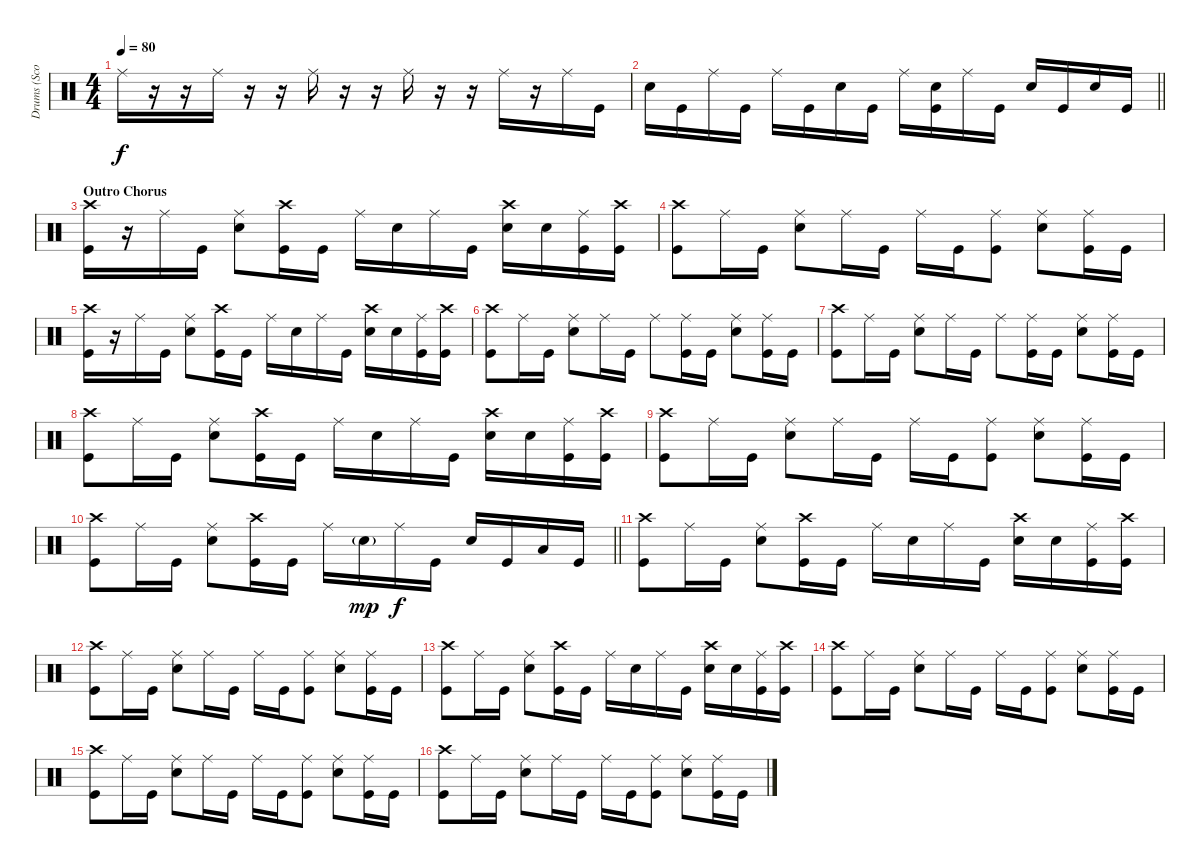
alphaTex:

\track ("Drums (Scott Phillips)" "Drums (Sco") {instrument percussion}
\staff {score}
\articulation defaults
\ts (4 4)
\tempo 80
\clef neutral
\ks c "Ride (middle)".16{dy f}
r.16 r.16 "Ride (middle)".16 r.16 r.16 "Ride (middle)".16 r.16 r.16 "Ride (middle)".16 r.16 r.16 "Ride (middle)".16 r.16 "Ride (middle)".16 "Kick (hit)".16 |
\barLineRight lightlight "Snare (hit) 2".16 "Kick (hit)".16 "Ride (middle)".16 "Kick (hit)".16 "Ride (middle)".16 "Kick (hit)".16 "Snare (hit) 2".16 "Kick (hit)".16 "Ride (middle)".16
("Snare (hit) 2" "Kick (hit)").16 "Ride (middle)".16 "Kick (hit)".16 "Snare (hit) 2".16 "Kick (hit)".16 "Snare (hit) 2".16 "Kick (hit)".16 |
\section ("" "Outro Chorus")
("Crash high (hit)" "Kick (hit)").16 r.16 "Ride (middle)".16 "Kick (hit)".16 ("Ride (middle)" "Snare (hit) 2").8 ("Crash high (hit)" "Kick (hit)").16 "Kick (hit)".16 "Ride (middle)".16 "Snare (hit) 2".16 "Ride (middle)".16 "Kick (hit)".16 ("Crash high (hit)" "Snare (hit) 2").16 "Snare (hit) 2".16 ("Ride (middle)" "Kick (hit)").16 ("Crash high (hit)" "Kick (hit)").16 |
("Crash high (hit)" "Kick (hit)").8 "Ride (middle)".16 "Kick (hit)".16 ("Ride (middle)" "Snare (hit) 2").8 "Ride (middle)".16 "Kick (hit)".16 "Ride (middle)".16 "Kick (hit)".16 ("Ride (middle)" "Kick (hit)").8 ("Ride (middle)" "Snare (hit) 2").8 ("Ride (middle)" "Kick (hit)").16 "Kick (hit)".16 |
("Crash high (hit)" "Kick (hit)").16 r.16 "Ride (middle)".16 "Kick (hit)".16 ("Ride (middle)" "Snare (hit) 2").8 ("Crash high (hit)" "Kick (hit)").16 "Kick (hit)".16 "Ride (middle)".16 "Snare (hit) 2".16 "Ride (middle)".16 "Kick (hit)".16 ("Crash high (hit)" "Snare (hit) 2").16 "Snare (hit) 2".16 ("Ride (middle)" "Kick (hit)").16 ("Crash high (hit)" "Kick (hit)").16 |
("Crash high (hit)" "Kick (hit)").8 "Ride (middle)".16 "Kick (hit)".16 ("Ride (middle)" "Snare (hit) 2").8 "Ride (middle)".16 "Kick (hit)".16 "Ride (middle)".8 ("Ride (middle)" "Kick (hit)").16 "Kick (hit)".16 ("Ride (middle)" "Snare (hit) 2").8 ("Ride (middle)" "Kick (hit)").16 "Kick (hit)".16 |
("Crash high (hit)" "Kick (hit)").8 "Ride (middle)".16 "Kick (hit)".16 ("Ride (middle)" "Snare (hit) 2").8 "Ride (middle)".16 "Kick (hit)".16 "Ride (middle)".8 ("Ride (middle)" "Kick (hit)").16 "Kick (hit)".16 ("Ride (middle)" "Snare (hit) 2").8 ("Ride (middle)" "Kick (hit)").16 "Kick (hit)".16 |
("Crash high (hit)" "Kick (hit)").8 "Ride (middle)".16 "Kick (hit)".16 ("Ride (middle)" "Snare (hit) 2").8 ("Crash high (hit)" "Kick (hit)").16 "Kick (hit)".16 "Ride (middle)".16 "Snare (hit) 2".16 "Ride (middle)".16 "Kick (hit)".16 ("Crash high (hit)" "Snare (hit) 2").16 "Snare (hit) 2".16 ("Ride (middle)" "Kick (hit)").16 ("Crash high (hit)" "Kick (hit)").16 |
("Crash high (hit)" "Kick (hit)").8 "Ride (middle)".16 "Kick (hit)".16 ("Ride (middle)" "Snare (hit) 2").8 "Ride (middle)".16 "Kick (hit)".16 "Ride (middle)".16 "Kick (hit)".16 ("Ride (middle)" "Kick (hit)").8 ("Ride (middle)" "Snare (hit) 2").8 ("Ride (middle)" "Kick (hit)").16 "Kick (hit)".16 |
\barLineRight lightlight
("Crash high (hit)" "Kick (hit)").8 "Ride (middle)".16 "Kick (hit)".16 ("Ride (middle)" "Snare (hit) 2").8 ("Crash high (hit)" "Kick (hit)").16 "Kick (hit)".16 "Ride (middle)".16 "Snare (hit) 2"{g}.16{dy mp} "Ride (middle)".16{dy f} "Kick (hit)".16 "Snare (hit) 2".16 "Kick (hit)".16 "Low Tom (hit)".16 "Kick (hit)".16 |
("Crash high (hit)" "Kick (hit)").8 "Ride (middle)".16 "Kick (hit)".16 ("Ride (middle)" "Snare (hit) 2").8 ("Crash high (hit)" "Kick (hit)").16 "Kick (hit)".16 "Ride (middle)".16 "Snare (hit) 2".16 "Ride (middle)".16 "Kick (hit)".16 ("Crash high (hit)" "Snare (hit) 2").16 "Snare (hit) 2".16 ("Ride (middle)" "Kick (hit)").16 ("Crash high (hit)" "Kick (hit)").16 |
("Crash high (hit)" "Kick (hit)").8 "Ride (middle)".16 "Kick (hit)".16 ("Ride (middle)" "Snare (hit) 2").8 "Ride (middle)".16 "Kick (hit)".16 "Ride (middle)".16 "Kick (hit)".16 ("Ride (middle)" "Kick (hit)").8 ("Ride (middle)" "Snare (hit) 2").8 ("Ride (middle)" "Kick (hit)").16 "Kick (hit)".16 |
("Crash high (hit)" "Kick (hit)").8 "Ride (middle)".16 "Kick (hit)".16 ("Ride (middle)" "Snare (hit) 2").8 ("Crash high (hit)" "Kick (hit)").16 "Kick (hit)".16 "Ride (middle)".16 "Snare (hit) 2".16 "Ride (middle)".16 "Kick (hit)".16 ("Crash high (hit)" "Snare (hit) 2").16 "Snare (hit) 2".16 ("Ride (middle)" "Kick (hit)").16 ("Crash high (hit)" "Kick (hit)").16 |
("Crash high (hit)" "Kick (hit)").8 "Ride (middle)".16 "Kick (hit)".16 ("Ride (middle)" "Snare (hit) 2").8 "Ride (middle)".16 "Kick (hit)".16 "Ride (middle)".16 "Kick (hit)".16 ("Ride (middle)" "Kick (hit)").8 ("Ride (middle)" "Snare (hit) 2").8 ("Ride (middle)" "Kick (hit)").16 "Kick (hit)".16 |
("Crash high (hit)" "Kick (hit)").8 "Ride (middle)".16 "Kick (hit)".16 ("Ride (middle)" "Snare (hit) 2").8 "Ride (middle)".16 "Kick (hit)".16 "Ride (middle)".16 "Kick (hit)".16 ("Ride (middle)" "Kick (hit)").8 ("Ride (middle)" "Snare (hit) 2").8 ("Ride (middle)" "Kick (hit)").16 "Kick (hit)".16 |
("Crash high (hit)" "Kick (hit)").8 "Ride (middle)".16 "Kick (hit)".16 ("Ride (middle)" "Snare (hit) 2").8 "Ride (middle)".16 "Kick (hit)".16 "Ride (middle)".16 "Kick (hit)".16 ("Ride (middle)" "Kick (hit)").8 ("Ride (middle)" "Snare (hit) 2").8 ("Ride (middle)" "Kick (hit)").16 "Kick (hit)".16
